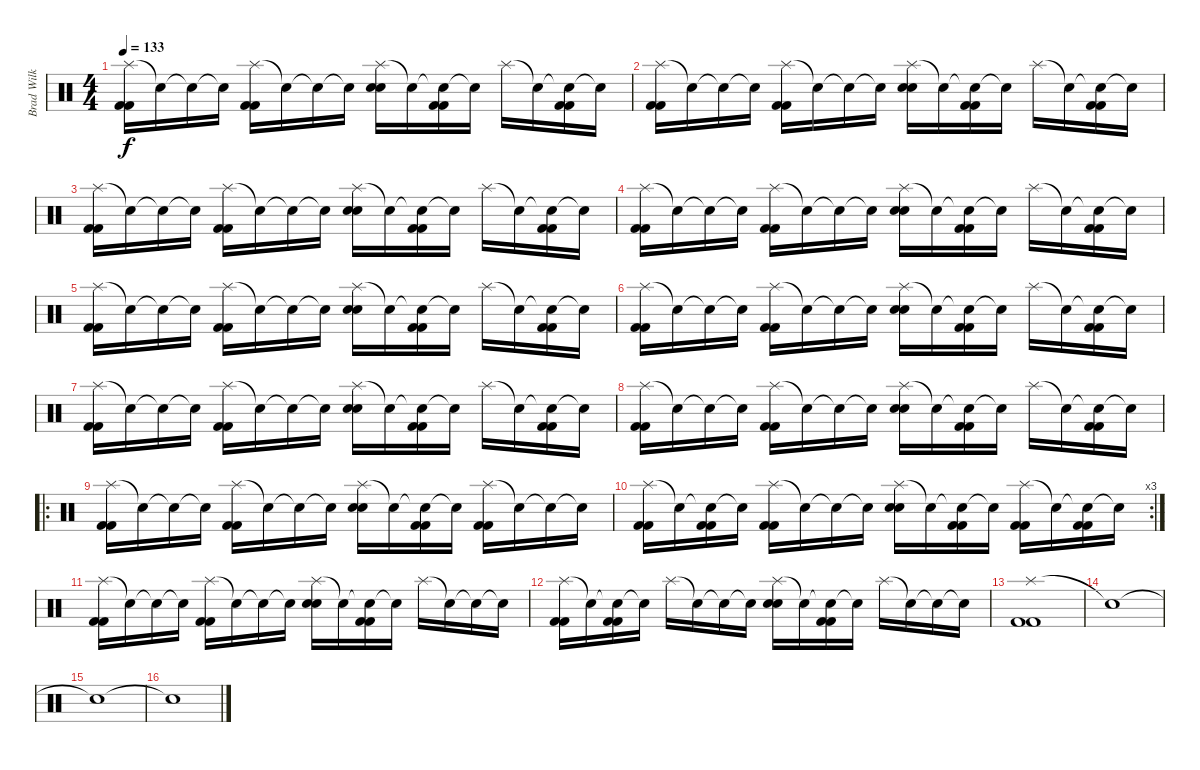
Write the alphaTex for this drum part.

\track ("Brad Wilk" "Brad Wilk") {instrument percussion}
\staff {score}
\articulation defaults
\ts (4 4)
\tempo 133
\clef neutral
\ks c
("Splash (hit)" "Kick (hit) 2" "Kick (hit) 2").16{dy f} "Snare (hit)"{t}.16 "Snare (hit)"{t}.16 "Snare (hit)"{t}.16 ("Splash (hit)" "Kick (hit) 2" "Kick (hit) 2").16 "Snare (hit)"{t}.16 "Snare (hit)"{t}.16 "Snare (hit)"{t}.16 ("Splash (hit)" "Electric Snare (hit)" "Electric Snare (hit)").16 "Snare (hit)"{t}.16 ("Snare (hit)"{t} "Kick (hit) 2" "Kick (hit) 2").16 "Snare (hit)"{t}.16 "Splash (hit)".16 "Snare (hit)"{t}.16 ("Snare (hit)"{t} "Kick (hit) 2" "Kick (hit) 2").16 "Snare (hit)"{t}.16 |
("Splash (hit)" "Kick (hit) 2" "Kick (hit) 2").16 "Snare (hit)"{t}.16 "Snare (hit)"{t}.16 "Snare (hit)"{t}.16 ("Splash (hit)" "Kick (hit) 2" "Kick (hit) 2").16 "Snare (hit)"{t}.16 "Snare (hit)"{t}.16 "Snare (hit)"{t}.16 ("Splash (hit)" "Electric Snare (hit)" "Electric Snare (hit)").16 "Snare (hit)"{t}.16 ("Snare (hit)"{t} "Kick (hit) 2" "Kick (hit) 2").16 "Snare (hit)"{t}.16 "Splash (hit)".16 "Snare (hit)"{t}.16 ("Snare (hit)"{t} "Kick (hit) 2" "Kick (hit) 2").16 "Snare (hit)"{t}.16 |
("Splash (hit)" "Kick (hit) 2" "Kick (hit) 2").16 "Snare (hit)"{t}.16 "Snare (hit)"{t}.16 "Snare (hit)"{t}.16 ("Splash (hit)" "Kick (hit) 2" "Kick (hit) 2").16 "Snare (hit)"{t}.16 "Snare (hit)"{t}.16 "Snare (hit)"{t}.16 ("Splash (hit)" "Electric Snare (hit)" "Electric Snare (hit)").16 "Snare (hit)"{t}.16 ("Snare (hit)"{t} "Kick (hit) 2" "Kick (hit) 2").16 "Snare (hit)"{t}.16 "Splash (hit)".16 "Snare (hit)"{t}.16 ("Snare (hit)"{t} "Kick (hit) 2" "Kick (hit) 2").16 "Snare (hit)"{t}.16 |
("Splash (hit)" "Kick (hit) 2" "Kick (hit) 2").16 "Snare (hit)"{t}.16 "Snare (hit)"{t}.16 "Snare (hit)"{t}.16 ("Splash (hit)" "Kick (hit) 2" "Kick (hit) 2").16 "Snare (hit)"{t}.16 "Snare (hit)"{t}.16 "Snare (hit)"{t}.16 ("Splash (hit)" "Electric Snare (hit)" "Electric Snare (hit)").16 "Snare (hit)"{t}.16 ("Snare (hit)"{t} "Kick (hit) 2" "Kick (hit) 2").16 "Snare (hit)"{t}.16 "Splash (hit)".16 "Snare (hit)"{t}.16 ("Snare (hit)"{t} "Kick (hit) 2" "Kick (hit) 2").16 "Snare (hit)"{t}.16 |
("Splash (hit)" "Kick (hit) 2" "Kick (hit) 2").16 "Snare (hit)"{t}.16 "Snare (hit)"{t}.16 "Snare (hit)"{t}.16 ("Splash (hit)" "Kick (hit) 2" "Kick (hit) 2").16 "Snare (hit)"{t}.16 "Snare (hit)"{t}.16 "Snare (hit)"{t}.16 ("Splash (hit)" "Electric Snare (hit)" "Electric Snare (hit)").16 "Snare (hit)"{t}.16 ("Snare (hit)"{t} "Kick (hit) 2" "Kick (hit) 2").16 "Snare (hit)"{t}.16 "Splash (hit)".16 "Snare (hit)"{t}.16 ("Snare (hit)"{t} "Kick (hit) 2" "Kick (hit) 2").16 "Snare (hit)"{t}.16 |
("Splash (hit)" "Kick (hit) 2" "Kick (hit) 2").16 "Snare (hit)"{t}.16 "Snare (hit)"{t}.16 "Snare (hit)"{t}.16 ("Splash (hit)" "Kick (hit) 2" "Kick (hit) 2").16 "Snare (hit)"{t}.16 "Snare (hit)"{t}.16 "Snare (hit)"{t}.16 ("Splash (hit)" "Electric Snare (hit)" "Electric Snare (hit)").16 "Snare (hit)"{t}.16 ("Snare (hit)"{t} "Kick (hit) 2" "Kick (hit) 2").16 "Snare (hit)"{t}.16 "Splash (hit)".16 "Snare (hit)"{t}.16 ("Snare (hit)"{t} "Kick (hit) 2" "Kick (hit) 2").16 "Snare (hit)"{t}.16 |
("Splash (hit)" "Kick (hit) 2" "Kick (hit) 2").16 "Snare (hit)"{t}.16 "Snare (hit)"{t}.16 "Snare (hit)"{t}.16 ("Splash (hit)" "Kick (hit) 2" "Kick (hit) 2").16 "Snare (hit)"{t}.16 "Snare (hit)"{t}.16 "Snare (hit)"{t}.16 ("Splash (hit)" "Electric Snare (hit)" "Electric Snare (hit)").16 "Snare (hit)"{t}.16 ("Snare (hit)"{t} "Kick (hit) 2" "Kick (hit) 2").16 "Snare (hit)"{t}.16 "Splash (hit)".16 "Snare (hit)"{t}.16 ("Snare (hit)"{t} "Kick (hit) 2" "Kick (hit) 2").16 "Snare (hit)"{t}.16 |
("Splash (hit)" "Kick (hit) 2" "Kick (hit) 2").16 "Snare (hit)"{t}.16 "Snare (hit)"{t}.16 "Snare (hit)"{t}.16 ("Splash (hit)" "Kick (hit) 2" "Kick (hit) 2").16 "Snare (hit)"{t}.16 "Snare (hit)"{t}.16 "Snare (hit)"{t}.16 ("Splash (hit)" "Electric Snare (hit)" "Electric Snare (hit)").16 "Snare (hit)"{t}.16 ("Snare (hit)"{t} "Kick (hit) 2" "Kick (hit) 2").16 "Snare (hit)"{t}.16 "Splash (hit)".16 "Snare (hit)"{t}.16 ("Snare (hit)"{t} "Kick (hit) 2" "Kick (hit) 2").16 "Snare (hit)"{t}.16 |
\ro
("Splash (hit)" "Kick (hit) 2" "Kick (hit) 2").16 "Snare (hit)"{t}.16 "Snare (hit)"{t}.16 "Snare (hit)"{t}.16 ("Splash (hit)" "Kick (hit) 2" "Kick (hit) 2").16 "Snare (hit)"{t}.16 "Snare (hit)"{t}.16 "Snare (hit)"{t}.16 ("Splash (hit)" "Electric Snare (hit)" "Electric Snare (hit)").16 "Snare (hit)"{t}.16 ("Snare (hit)"{t} "Kick (hit) 2" "Kick (hit) 2").16 "Snare (hit)"{t}.16 ("Splash (hit)" "Kick (hit) 2" "Kick (hit) 2").16 "Snare (hit)"{t}.16 "Snare (hit)"{t}.16 "Snare (hit)"{t}.16 |
\rc 3
("Splash (hit)" "Kick (hit) 2" "Kick (hit) 2").16 "Snare (hit)"{t}.16 ("Snare (hit)"{t} "Kick (hit) 2" "Kick (hit) 2").16 "Snare (hit)"{t}.16 ("Splash (hit)" "Kick (hit) 2" "Kick (hit) 2").16 "Snare (hit)"{t}.16 "Snare (hit)"{t}.16 "Snare (hit)"{t}.16 ("Splash (hit)" "Electric Snare (hit)" "Electric Snare (hit)").16 "Snare (hit)"{t}.16 ("Snare (hit)"{t} "Kick (hit) 2" "Kick (hit) 2").16 "Snare (hit)"{t}.16 ("Splash (hit)" "Kick (hit) 2" "Kick (hit) 2").16 "Snare (hit)"{t}.16 ("Snare (hit)"{t} "Kick (hit) 2" "Kick (hit) 2").16 "Snare (hit)"{t}.16 |
("Splash (hit)" "Kick (hit) 2" "Kick (hit) 2").16 "Snare (hit)"{t}.16 "Snare (hit)"{t}.16 "Snare (hit)"{t}.16 ("Splash (hit)" "Kick (hit) 2" "Kick (hit) 2").16 "Snare (hit)"{t}.16 "Snare (hit)"{t}.16 "Snare (hit)"{t}.16 ("Splash (hit)" "Electric Snare (hit)" "Electric Snare (hit)").16 "Snare (hit)"{t}.16 ("Snare (hit)"{t} "Kick (hit) 2" "Kick (hit) 2").16 "Snare (hit)"{t}.16 "Splash (hit)".16 "Snare (hit)"{t}.16 "Snare (hit)"{t}.16 "Snare (hit)"{t}.16 |
("Splash (hit)" "Kick (hit) 2" "Kick (hit) 2").16 "Snare (hit)"{t}.16 ("Snare (hit)"{t} "Kick (hit) 2" "Kick (hit) 2").16 "Snare (hit)"{t}.16 "Splash (hit)".16 "Snare (hit)"{t}.16 "Snare (hit)"{t}.16 "Snare (hit)"{t}.16 ("Splash (hit)" "Electric Snare (hit)" "Electric Snare (hit)").16 "Snare (hit)"{t}.16 ("Snare (hit)"{t} "Kick (hit) 2" "Kick (hit) 2").16 "Snare (hit)"{t}.16 "Splash (hit)".16 "Snare (hit)"{t}.16 "Snare (hit)"{t}.16 "Snare (hit)"{t}.16 |
("Splash (hit)" "Kick (hit) 2" "Kick (hit) 2").1 |
"Snare (hit)"{t}.1 |
"Snare (hit)"{t}.1 |
"Snare (hit)"{t}.1
